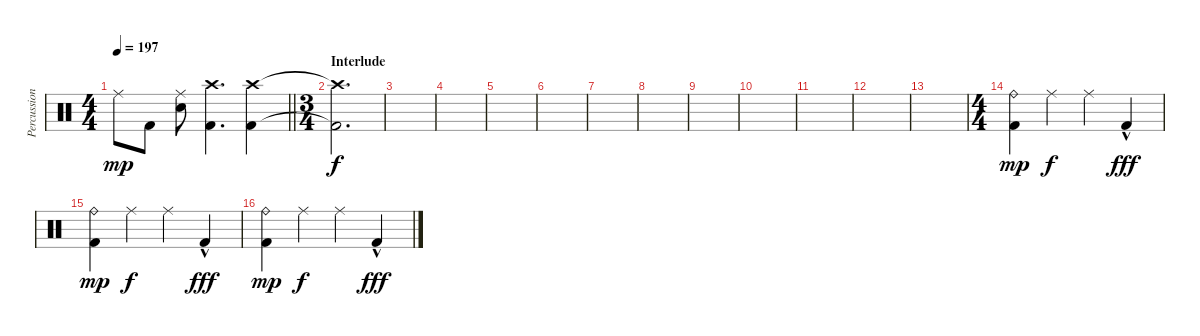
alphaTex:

\track ("Percussion" "Percussion") {instrument percussion}
\staff {score}
\articulation defaults
\ts (4 4)
\tempo 197
\clef neutral
\barLineRight lightlight
\ks c "Ride (middle)".8{dy mp} "Kick (hit) 2".8
("Ride (middle)" "Snare (hit) 2").8 ("Crash high (hit)" "Kick (hit) 2").4{d} ("Crash high (hit)" "Kick (hit) 2").4 |
\ts (3 4)
\section ("" "Interlude")
("Crash high (hit)"{t} "Kick (hit) 2"{t}).2{d dy f} |
|
|
|
|
|
|
|
|
|
|
|
\ts (4 4)
("Ride (bell)" "Kick (hit) 2").4{dy mp} "Ride (middle)".4{dy f} "Ride (middle)".4 "Kick (hit) 2"{hac}.4{dy fff} |
("Ride (bell)" "Kick (hit) 2").4{dy mp} "Ride (middle)".4{dy f} "Ride (middle)".4 "Kick (hit) 2"{hac}.4{dy fff} |
("Ride (bell)" "Kick (hit) 2").4{dy mp} "Ride (middle)".4{dy f} "Ride (middle)".4 "Kick (hit) 2"{hac}.4{dy fff}
